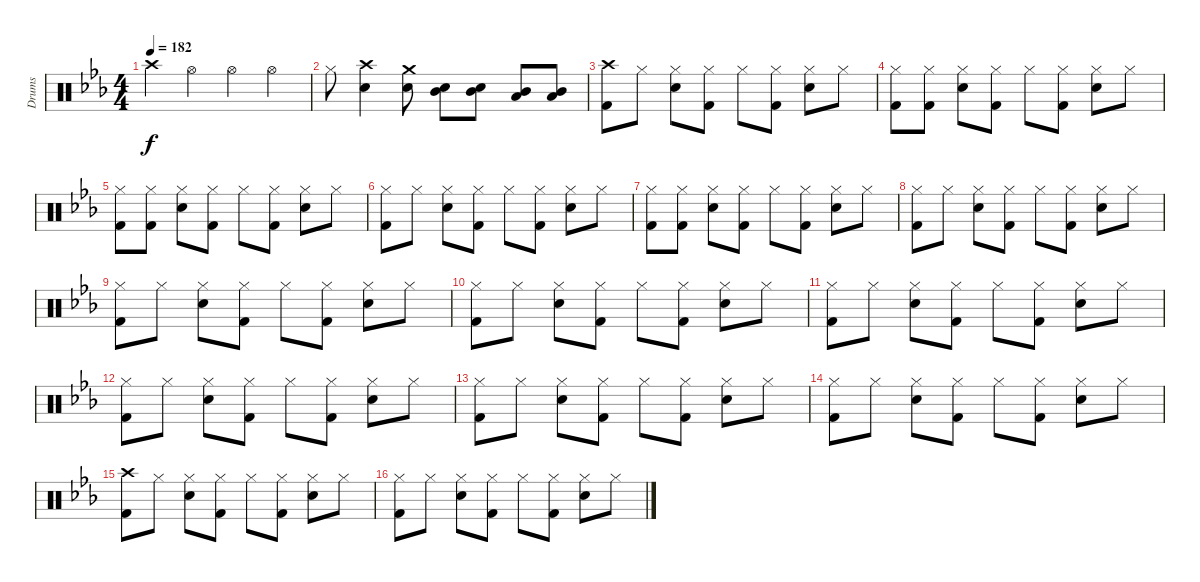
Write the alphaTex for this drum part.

\track ("Drums" "Drums") {instrument percussion}
\staff {score}
\articulation defaults
\ts (4 4)
\tempo 182
\clef neutral
\ks eb "Crash high (hit)".4{dy f} "Hi-Hat (open)".4 "Hi-Hat (open)".4 "Hi-Hat (open)".4
|
"Hi-Hat (closed)".8 ("Crash high (hit)" "Snare (hit) 2").4 ("Crash medium (hit)" "Snare (hit) 2").8 ("Mid Tom (hit)" "Snare (hit) 2").8 ("Mid Tom (hit)" "Snare (hit) 2").8 ("Mid Tom (hit)" "Low Tom (hit)").8 ("Mid Tom (hit)" "Low Tom (hit)").8 |
("Crash high (hit)" "Kick (hit) 2").8 "Hi-Hat (closed)".8 ("Hi-Hat (closed)" "Snare (hit) 2").8 ("Hi-Hat (closed)" "Kick (hit) 2").8 "Hi-Hat (closed)".8 ("Hi-Hat (closed)" "Kick (hit) 2").8 ("Hi-Hat (closed)" "Snare (hit) 2").8 "Hi-Hat (closed)".8 |
("Hi-Hat (closed)" "Kick (hit) 2").8 ("Hi-Hat (closed)" "Kick (hit) 2").8 ("Hi-Hat (closed)" "Snare (hit) 2").8 ("Hi-Hat (closed)" "Kick (hit) 2").8 "Hi-Hat (closed)".8 ("Hi-Hat (closed)" "Kick (hit) 2").8 ("Hi-Hat (closed)" "Snare (hit) 2").8 "Hi-Hat (closed)".8 |
("Hi-Hat (closed)" "Kick (hit) 2").8 ("Hi-Hat (closed)" "Kick (hit) 2").8 ("Hi-Hat (closed)" "Snare (hit) 2").8 ("Hi-Hat (closed)" "Kick (hit) 2").8 "Hi-Hat (closed)".8 ("Hi-Hat (closed)" "Kick (hit) 2").8 ("Hi-Hat (closed)" "Snare (hit) 2").8 "Hi-Hat (closed)".8 |
("Hi-Hat (closed)" "Kick (hit) 2").8 "Hi-Hat (closed)".8 ("Hi-Hat (closed)" "Snare (hit) 2").8 ("Hi-Hat (closed)" "Kick (hit) 2").8 "Hi-Hat (closed)".8 ("Hi-Hat (closed)" "Kick (hit) 2").8 ("Hi-Hat (closed)" "Snare (hit) 2").8 "Hi-Hat (closed)".8 |
("Hi-Hat (closed)" "Kick (hit) 2").8 ("Hi-Hat (closed)" "Kick (hit) 2").8 ("Hi-Hat (closed)" "Snare (hit) 2").8 ("Hi-Hat (closed)" "Kick (hit) 2").8 "Hi-Hat (closed)".8 ("Hi-Hat (closed)" "Kick (hit) 2").8 ("Hi-Hat (closed)" "Snare (hit) 2").8 "Hi-Hat (closed)".8 |
("Hi-Hat (closed)" "Kick (hit) 2").8 "Hi-Hat (closed)".8 ("Hi-Hat (closed)" "Snare (hit) 2").8 ("Hi-Hat (closed)" "Kick (hit) 2").8 "Hi-Hat (closed)".8 ("Hi-Hat (closed)" "Kick (hit) 2").8 ("Hi-Hat (closed)" "Snare (hit) 2").8 "Hi-Hat (closed)".8 |
("Hi-Hat (closed)" "Kick (hit) 2").8 "Hi-Hat (closed)".8 ("Hi-Hat (closed)" "Snare (hit) 2").8 ("Hi-Hat (closed)" "Kick (hit) 2").8 "Hi-Hat (closed)".8 ("Hi-Hat (closed)" "Kick (hit) 2").8 ("Hi-Hat (closed)" "Snare (hit) 2").8 "Hi-Hat (closed)".8 |
("Hi-Hat (closed)" "Kick (hit) 2").8 "Hi-Hat (closed)".8 ("Hi-Hat (closed)" "Snare (hit) 2").8 ("Hi-Hat (closed)" "Kick (hit) 2").8 "Hi-Hat (closed)".8 ("Hi-Hat (closed)" "Kick (hit) 2").8 ("Hi-Hat (closed)" "Snare (hit) 2").8 "Hi-Hat (closed)".8 |
("Hi-Hat (closed)" "Kick (hit) 2").8 "Hi-Hat (closed)".8 ("Hi-Hat (closed)" "Snare (hit) 2").8 ("Hi-Hat (closed)" "Kick (hit) 2").8 "Hi-Hat (closed)".8 ("Hi-Hat (closed)" "Kick (hit) 2").8 ("Hi-Hat (closed)" "Snare (hit) 2").8 "Hi-Hat (closed)".8 |
("Hi-Hat (closed)" "Kick (hit) 2").8 "Hi-Hat (closed)".8 ("Hi-Hat (closed)" "Snare (hit) 2").8 ("Hi-Hat (closed)" "Kick (hit) 2").8 "Hi-Hat (closed)".8 ("Hi-Hat (closed)" "Kick (hit) 2").8 ("Hi-Hat (closed)" "Snare (hit) 2").8 "Hi-Hat (closed)".8 |
("Hi-Hat (closed)" "Kick (hit) 2").8 "Hi-Hat (closed)".8 ("Hi-Hat (closed)" "Snare (hit) 2").8 ("Hi-Hat (closed)" "Kick (hit) 2").8 "Hi-Hat (closed)".8 ("Hi-Hat (closed)" "Kick (hit) 2").8 ("Hi-Hat (closed)" "Snare (hit) 2").8 "Hi-Hat (closed)".8 |
("Hi-Hat (closed)" "Kick (hit) 2").8 "Hi-Hat (closed)".8 ("Hi-Hat (closed)" "Snare (hit) 2").8 ("Hi-Hat (closed)" "Kick (hit) 2").8 "Hi-Hat (closed)".8 ("Hi-Hat (closed)" "Kick (hit) 2").8 ("Hi-Hat (closed)" "Snare (hit) 2").8 "Hi-Hat (closed)".8 |
("Crash high (hit)" "Kick (hit) 2").8 "Hi-Hat (closed)".8 ("Hi-Hat (closed)" "Snare (hit) 2").8 ("Hi-Hat (closed)" "Kick (hit) 2").8 "Hi-Hat (closed)".8 ("Hi-Hat (closed)" "Kick (hit) 2").8 ("Hi-Hat (closed)" "Snare (hit) 2").8 "Hi-Hat (closed)".8 |
("Hi-Hat (closed)" "Kick (hit) 2").8 "Hi-Hat (closed)".8 ("Hi-Hat (closed)" "Snare (hit) 2").8 ("Hi-Hat (closed)" "Kick (hit) 2").8 "Hi-Hat (closed)".8 ("Hi-Hat (closed)" "Kick (hit) 2").8 ("Hi-Hat (closed)" "Snare (hit) 2").8 "Hi-Hat (closed)".8
